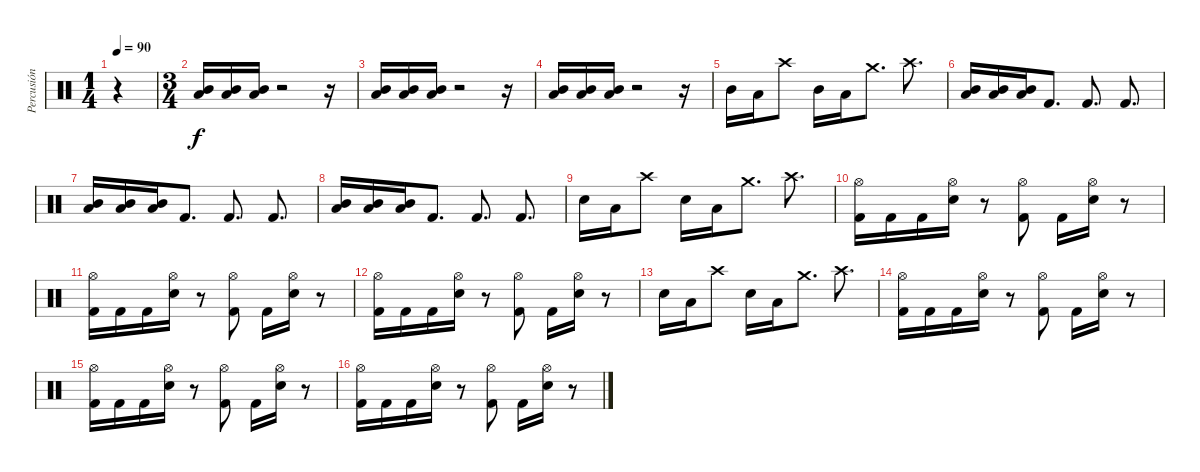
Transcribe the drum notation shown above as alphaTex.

\track ("Percusión" "Percusión") {instrument percussion}
\staff {score}
\articulation defaults
\ts (1 4)
\tempo 90
\clef neutral
\ks c
r.4{dy f} |
\ts (3 4)
("Low Tom (hit)" "Mid Tom (hit)").16 ("Low Tom (hit)" "Mid Tom (hit)").16 ("Low Tom (hit)" "Mid Tom (hit)").16 r.2 r.16 |
("Low Tom (hit)" "Mid Tom (hit)").16 ("Low Tom (hit)" "Mid Tom (hit)").16 ("Low Tom (hit)" "Mid Tom (hit)").16 r.2 r.16 |
("Low Tom (hit)" "Mid Tom (hit)").16 ("Low Tom (hit)" "Mid Tom (hit)").16 ("Low Tom (hit)" "Mid Tom (hit)").16 r.2 r.16 |
"Mid Tom (hit)".16 "Low Tom (hit)".16 "Crash high (hit)".8 "Mid Tom (hit)".16 "Low Tom (hit)".16 "Crash medium (hit)".8{d} "Crash high (hit)".8{d} |
("Low Tom (hit)" "Mid Tom (hit)").16 ("Low Tom (hit)" "Mid Tom (hit)").16 ("Low Tom (hit)" "Mid Tom (hit)").16 "Kick (hit) 2".8{d} "Kick (hit) 2".8{d} "Kick (hit) 2".8{d} |
("Low Tom (hit)" "Mid Tom (hit)").16 ("Low Tom (hit)" "Mid Tom (hit)").16 ("Low Tom (hit)" "Mid Tom (hit)").16 "Kick (hit) 2".8{d} "Kick (hit) 2".8{d} "Kick (hit) 2".8{d} |
("Low Tom (hit)" "Mid Tom (hit)").16 ("Low Tom (hit)" "Mid Tom (hit)").16 ("Low Tom (hit)" "Mid Tom (hit)").16 "Kick (hit) 2".8{d} "Kick (hit) 2".8{d} "Kick (hit) 2".8{d} |
"Electric Snare (hit)".16 "Low Tom (hit)".16 "Crash high (hit)".8 "Electric Snare (hit)".16 "Low Tom (hit)".16 "Crash medium (hit)".8{d} "Crash high (hit)".8{d} |
("Hi-Hat (open)" "Kick (hit) 2").16 "Kick (hit) 2".16 "Kick (hit) 2".16 ("Hi-Hat (open)" "Electric Snare (hit)").16 r.8 ("Hi-Hat (open)" "Kick (hit) 2").8 "Kick (hit) 2".16 ("Hi-Hat (open)" "Electric Snare (hit)").16 r.8 |
("Hi-Hat (open)" "Kick (hit) 2").16 "Kick (hit) 2".16 "Kick (hit) 2".16 ("Hi-Hat (open)" "Electric Snare (hit)").16 r.8 ("Hi-Hat (open)" "Kick (hit) 2").8 "Kick (hit) 2".16 ("Hi-Hat (open)" "Electric Snare (hit)").16 r.8 |
("Hi-Hat (open)" "Kick (hit) 2").16 "Kick (hit) 2".16 "Kick (hit) 2".16 ("Hi-Hat (open)" "Electric Snare (hit)").16 r.8 ("Hi-Hat (open)" "Kick (hit) 2").8 "Kick (hit) 2".16 ("Hi-Hat (open)" "Electric Snare (hit)").16 r.8 |
"Electric Snare (hit)".16 "Low Tom (hit)".16 "Crash high (hit)".8 "Electric Snare (hit)".16 "Low Tom (hit)".16 "Crash medium (hit)".8{d} "Crash high (hit)".8{d} |
("Hi-Hat (open)" "Kick (hit) 2").16 "Kick (hit) 2".16 "Kick (hit) 2".16 ("Hi-Hat (open)" "Electric Snare (hit)").16 r.8 ("Hi-Hat (open)" "Kick (hit) 2").8 "Kick (hit) 2".16 ("Hi-Hat (open)" "Electric Snare (hit)").16 r.8 |
("Hi-Hat (open)" "Kick (hit) 2").16 "Kick (hit) 2".16 "Kick (hit) 2".16 ("Hi-Hat (open)" "Electric Snare (hit)").16 r.8 ("Hi-Hat (open)" "Kick (hit) 2").8 "Kick (hit) 2".16 ("Hi-Hat (open)" "Electric Snare (hit)").16 r.8 |
("Hi-Hat (open)" "Kick (hit) 2").16 "Kick (hit) 2".16 "Kick (hit) 2".16 ("Hi-Hat (open)" "Electric Snare (hit)").16 r.8 ("Hi-Hat (open)" "Kick (hit) 2").8 "Kick (hit) 2".16 ("Hi-Hat (open)" "Electric Snare (hit)").16 r.8
